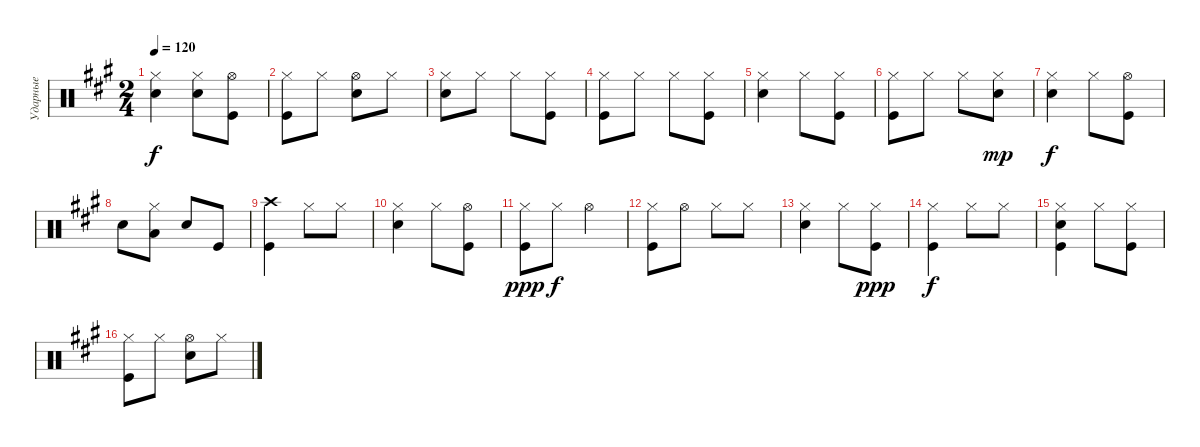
\track ("Ударные" "Ударные") {instrument percussion}
\staff {score}
\articulation defaults
\ts (2 4)
\tempo 120
\clef neutral
\ks f#minor
("Hi-Hat (closed)" "Snare (hit) 2").4{dy f} ("Hi-Hat (closed)" "Snare (hit) 2").8 ("Hi-Hat (open)" "Kick (hit)").8 |
("Kick (hit)" "Hi-Hat (closed)").8 "Hi-Hat (closed)".8 ("Snare (hit) 2" "Hi-Hat (open)").8 "Hi-Hat (closed)".8 |
("Snare (hit) 2" "Hi-Hat (closed)").8 "Hi-Hat (closed)".8 "Hi-Hat (closed)".8 ("Hi-Hat (closed)" "Kick (hit)").8 |
("Kick (hit)" "Hi-Hat (closed)").8 "Hi-Hat (closed)".8 "Hi-Hat (closed)".8 ("Hi-Hat (closed)" "Kick (hit)").8 |
("Hi-Hat (closed)" "Snare (hit) 2").4 "Hi-Hat (closed)".8 ("Kick (hit)" "Hi-Hat (closed)").8 |
("Hi-Hat (closed)" "Kick (hit)").8 "Hi-Hat (closed)".8 "Hi-Hat (closed)".8 ("Snare (hit) 2" "Hi-Hat (closed)").8{dy mp} |
("Snare (hit) 2" "Hi-Hat (closed)").4{dy f} "Hi-Hat (closed)".8 ("Kick (hit)" "Hi-Hat (open)").8 |
"Snare (hit) 2".8 ("Hi-Hat (closed)" "Low Tom (hit)").8 "Snare (hit) 2".8 "Kick (hit)".8 |
("Kick (hit)" "Crash high (hit)").4 "Hi-Hat (closed)".8 "Hi-Hat (closed)".8 |
("Snare (hit) 2" "Hi-Hat (closed)").4 "Hi-Hat (closed)".8 ("Kick (hit)" "Hi-Hat (open)").8 |
("Hi-Hat (closed)" "Kick (hit)").8{dy ppp} "Hi-Hat (closed)".8{dy f} "Hi-Hat (open)".4 |
("Kick (hit)" "Hi-Hat (closed)").8 "Hi-Hat (open)".8 "Hi-Hat (closed)".8 "Hi-Hat (closed)".8 |
("Snare (hit) 2" "Hi-Hat (closed)").4 "Hi-Hat (closed)".8 ("Kick (hit)" "Hi-Hat (closed)").8{dy ppp} |
("Kick (hit)" "Hi-Hat (closed)").4{dy f} "Hi-Hat (closed)".8 "Hi-Hat (closed)".8 |
("Snare (hit) 2" "Kick (hit)" "Hi-Hat (closed)").4 "Hi-Hat (closed)".8 ("Hi-Hat (closed)" "Kick (hit)").8 |
("Kick (hit)" "Hi-Hat (closed)").8 "Hi-Hat (closed)".8 ("Snare (hit) 2" "Hi-Hat (open)").8 "Hi-Hat (closed)".8
